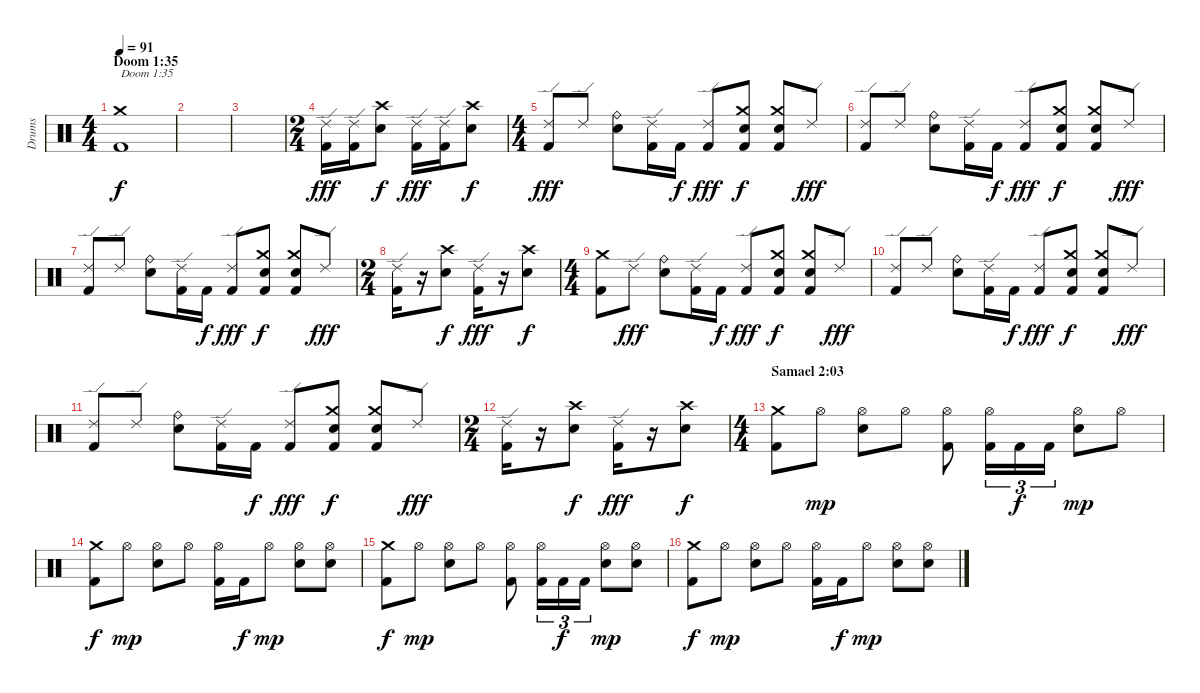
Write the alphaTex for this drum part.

\track ("Drums" "Drums") {instrument percussion}
\staff {score}
\articulation defaults
\ts (4 4)
\section ("" "Doom 1:35")
\tempo 91
\clef neutral
\ks c
("Kick (hit) 2" "Crash medium (hit)").1{txt "Doom 1:35" dy f} |
|
|
\ts (2 4)
("Kick (hit) 2" "Ride (edge) 2").16{dy fff} ("Kick (hit) 2" "Ride (edge) 2").16 ("Electric Snare (hit)" "Crash high (hit)").8{dy f} ("Kick (hit) 2" "Ride (edge) 2").16{dy fff} ("Kick (hit) 2" "Ride (edge) 2").16 ("Electric Snare (hit)" "Crash high (hit)").8{dy f} |
\ts (4 4)
("Kick (hit) 2" "Ride (edge) 2").8{dy fff} "Ride (edge) 2".8 ("Electric Snare (hit)" "Ride (bell)").8 ("Kick (hit) 2" "Ride (edge) 2").16 "Kick (hit) 2".16{dy f} ("Kick (hit) 2" "Ride (edge) 2").8{dy fff} ("Kick (hit) 2" "Electric Snare (hit)" "Crash medium (hit)").8{dy f} ("Kick (hit) 2" "Electric Snare (hit)" "Crash medium (hit)").8 "Ride (edge) 2".8{dy fff} |
("Kick (hit) 2" "Ride (edge) 2").8 "Ride (edge) 2".8 ("Electric Snare (hit)" "Ride (bell)").8 ("Kick (hit) 2" "Ride (edge) 2").16 "Kick (hit) 2".16{dy f} ("Kick (hit) 2" "Ride (edge) 2").8{dy fff} ("Kick (hit) 2" "Electric Snare (hit)" "Crash medium (hit)").8{dy f} ("Kick (hit) 2" "Electric Snare (hit)" "Crash medium (hit)").8 "Ride (edge) 2".8{dy fff} |
("Kick (hit) 2" "Ride (edge) 2").8 "Ride (edge) 2".8 ("Electric Snare (hit)" "Ride (bell)").8 ("Kick (hit) 2" "Ride (edge) 2").16 "Kick (hit) 2".16{dy f} ("Kick (hit) 2" "Ride (edge) 2").8{dy fff} ("Kick (hit) 2" "Electric Snare (hit)" "Crash medium (hit)").8{dy f} ("Kick (hit) 2" "Electric Snare (hit)" "Crash medium (hit)").8 "Ride (edge) 2".8{dy fff} |
\ts (2 4)
("Kick (hit) 2" "Ride (edge) 2").16 r.16 ("Electric Snare (hit)" "Crash high (hit)").8{dy f} ("Kick (hit) 2" "Ride (edge) 2").16{dy fff} r.16 ("Electric Snare (hit)" "Crash high (hit)").8{dy f} |
\ts (4 4)
("Kick (hit) 2" "Crash medium (hit)").8 "Ride (edge) 2".8{dy fff} ("Electric Snare (hit)" "Ride (bell)").8 ("Kick (hit) 2" "Ride (edge) 2").16 "Kick (hit) 2".16{dy f} ("Kick (hit) 2" "Ride (edge) 2").8{dy fff} ("Kick (hit) 2" "Electric Snare (hit)" "Crash medium (hit)").8{dy f} ("Kick (hit) 2" "Electric Snare (hit)" "Crash medium (hit)").8 "Ride (edge) 2".8{dy fff} |
("Kick (hit) 2" "Ride (edge) 2").8 "Ride (edge) 2".8 ("Electric Snare (hit)" "Ride (bell)").8 ("Kick (hit) 2" "Ride (edge) 2").16 "Kick (hit) 2".16{dy f} ("Kick (hit) 2" "Ride (edge) 2").8{dy fff} ("Kick (hit) 2" "Electric Snare (hit)" "Crash medium (hit)").8{dy f} ("Kick (hit) 2" "Electric Snare (hit)" "Crash medium (hit)").8 "Ride (edge) 2".8{dy fff} |
("Kick (hit) 2" "Ride (edge) 2").8 "Ride (edge) 2".8 ("Electric Snare (hit)" "Ride (bell)").8 ("Kick (hit) 2" "Ride (edge) 2").16 "Kick (hit) 2".16{dy f} ("Kick (hit) 2" "Ride (edge) 2").8{dy fff} ("Kick (hit) 2" "Electric Snare (hit)" "Crash medium (hit)").8{dy f} ("Kick (hit) 2" "Electric Snare (hit)" "Crash medium (hit)").8 "Ride (edge) 2".8{dy fff} |
\ts (2 4)
("Kick (hit) 2" "Ride (edge) 2").16 r.16 ("Electric Snare (hit)" "Crash high (hit)").8{dy f} ("Kick (hit) 2" "Ride (edge) 2").16{dy fff} r.16 ("Electric Snare (hit)" "Crash high (hit)").8{dy f} |
\ts (4 4)
\section ("" "Samael 2:03")
("Kick (hit) 2" "Crash medium (hit)").8 "Hi-Hat (open)".8{dy mp} ("Electric Snare (hit)" "Hi-Hat (open)").8 "Hi-Hat (open)".8 ("Kick (hit) 2" "Hi-Hat (open)").8 ("Kick (hit) 2" "Hi-Hat (open)").16{tu (3 2)} "Kick (hit) 2".16{tu (3 2) dy f} "Kick (hit) 2".16{tu (3 2)} ("Electric Snare (hit)" "Hi-Hat (open)").8{dy mp} "Hi-Hat (open)".8 |
("Kick (hit) 2" "Crash medium (hit)").8{dy f} "Hi-Hat (open)".8{dy mp} ("Electric Snare (hit)" "Hi-Hat (open)").8 "Hi-Hat (open)".8 ("Kick (hit) 2" "Hi-Hat (open)").16 "Kick (hit) 2".16{dy f} "Hi-Hat (open)".8{dy mp} ("Electric Snare (hit)" "Hi-Hat (open)").8 ("Electric Snare (hit)" "Hi-Hat (open)").8 |
("Kick (hit) 2" "Crash medium (hit)").8{dy f} "Hi-Hat (open)".8{dy mp} ("Electric Snare (hit)" "Hi-Hat (open)").8 "Hi-Hat (open)".8 ("Kick (hit) 2" "Hi-Hat (open)").8 ("Kick (hit) 2" "Hi-Hat (open)").16{tu (3 2)} "Kick (hit) 2".16{tu (3 2) dy f} "Kick (hit) 2".16{tu (3 2)} ("Electric Snare (hit)" "Hi-Hat (open)").8{dy mp} ("Electric Snare (hit)" "Hi-Hat (open)").8 |
("Kick (hit) 2" "Crash medium (hit)").8{dy f} "Hi-Hat (open)".8{dy mp} ("Electric Snare (hit)" "Hi-Hat (open)").8 "Hi-Hat (open)".8 ("Kick (hit) 2" "Hi-Hat (open)").16 "Kick (hit) 2".16{dy f} "Hi-Hat (open)".8{dy mp} ("Electric Snare (hit)" "Hi-Hat (open)").8 ("Electric Snare (hit)" "Hi-Hat (open)").8
